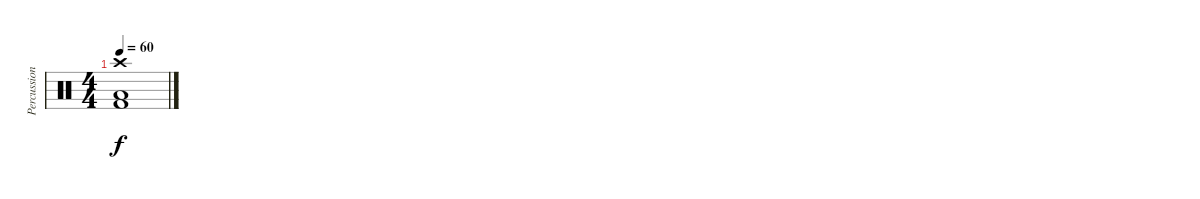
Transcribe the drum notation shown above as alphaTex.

\track ("Percussion" "Percussion") {instrument percussion}
\staff {score}
\articulation defaults
\ts (4 4)
\tempo 60
\clef neutral
\ks c
("Crash high (hit)" "Low Floor Tom (hit)" "Kick (hit) 2").1{dy f}
